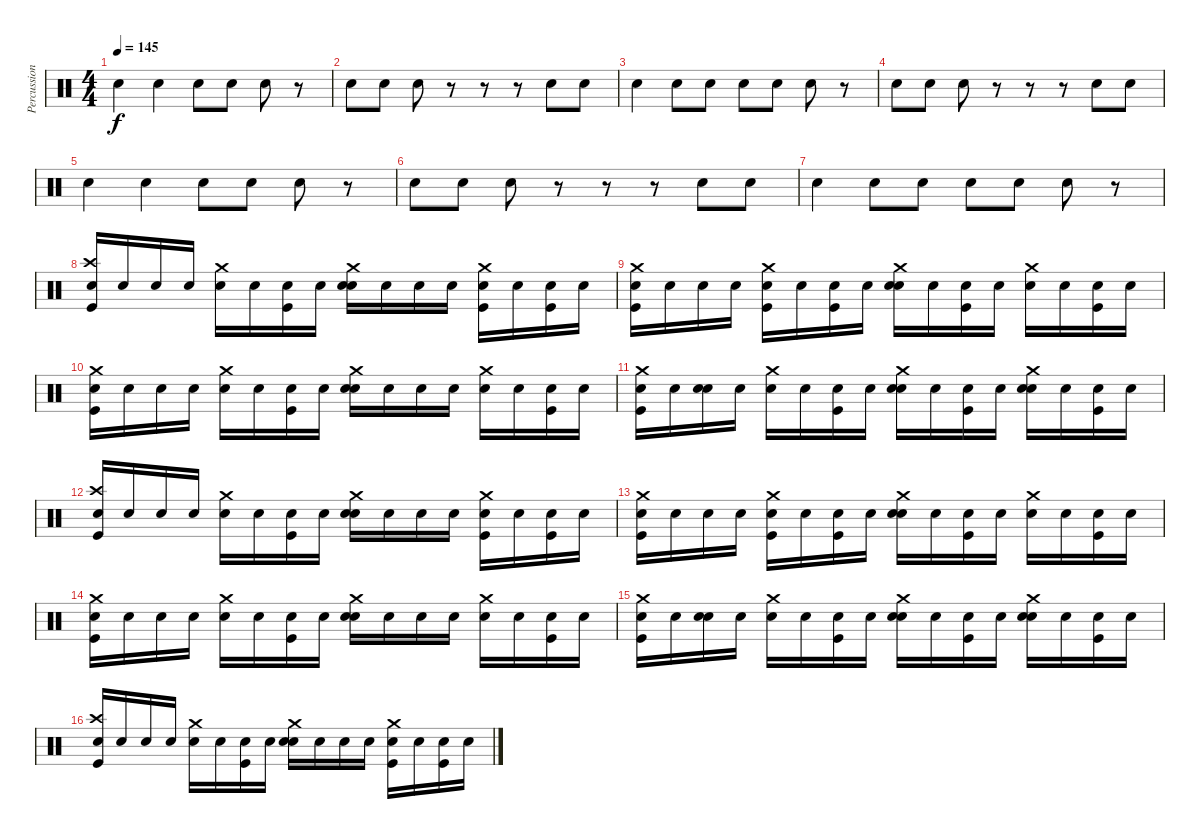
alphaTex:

\track ("Percussion" "Percussion") {instrument percussion}
\staff {score}
\articulation defaults
\ts (4 4)
\tempo 145
\clef neutral
\ks c "Snare (hit) 2".4{dy f} "Snare (hit) 2".4 "Snare (hit) 2".8 "Snare (hit) 2".8 "Snare (hit) 2".8
r.8 |
"Snare (hit) 2".8 "Snare (hit) 2".8 "Snare (hit) 2".8 r.8 r.8 r.8 "Snare (hit) 2".8 "Snare (hit) 2".8 |
"Snare (hit) 2".4 "Snare (hit) 2".8 "Snare (hit) 2".8 "Snare (hit) 2".8 "Snare (hit) 2".8 "Snare (hit) 2".8 r.8 |
"Snare (hit) 2".8 "Snare (hit) 2".8 "Snare (hit) 2".8 r.8 r.8 r.8 "Snare (hit) 2".8 "Snare (hit) 2".8 |
"Snare (hit) 2".4 "Snare (hit) 2".4 "Snare (hit) 2".8 "Snare (hit) 2".8 "Snare (hit) 2".8 r.8 |
"Snare (hit) 2".8 "Snare (hit) 2".8 "Snare (hit) 2".8 r.8 r.8 r.8 "Snare (hit) 2".8 "Snare (hit) 2".8 |
"Snare (hit) 2".4 "Snare (hit) 2".8 "Snare (hit) 2".8 "Snare (hit) 2".8 "Snare (hit) 2".8 "Snare (hit) 2".8 r.8 |
("Snare (hit)" "Crash high (hit)" "Kick (hit)").16 "Snare (hit)".16 "Snare (hit)".16 "Snare (hit)".16 ("Snare (hit)" "Crash medium (hit)").16 "Snare (hit)".16 ("Snare (hit)" "Kick (hit)").16 "Snare (hit)".16 ("Snare (hit)" "Crash medium (hit)" "Snare (hit) 2").16 "Snare (hit)".16 "Snare (hit)".16 "Snare (hit)".16 ("Snare (hit)" "Crash medium (hit)" "Kick (hit)").16 "Snare (hit)".16 ("Snare (hit)" "Kick (hit)").16 "Snare (hit)".16 |
("Snare (hit)" "Crash medium (hit)" "Kick (hit)").16 "Snare (hit)".16 "Snare (hit)".16 "Snare (hit)".16 ("Snare (hit)" "Crash medium (hit)" "Kick (hit)").16 "Snare (hit)".16 ("Snare (hit)" "Kick (hit)").16 "Snare (hit)".16 ("Snare (hit)" "Crash medium (hit)" "Snare (hit) 2").16 "Snare (hit)".16 ("Snare (hit)" "Kick (hit)").16 "Snare (hit)".16 ("Snare (hit)" "Crash medium (hit)").16 "Snare (hit)".16 ("Snare (hit)" "Kick (hit)").16 "Snare (hit)".16 |
("Snare (hit)" "Crash medium (hit)" "Kick (hit)").16 "Snare (hit)".16 "Snare (hit)".16 "Snare (hit)".16 ("Snare (hit)" "Crash medium (hit)").16 "Snare (hit)".16 ("Snare (hit)" "Kick (hit)").16 "Snare (hit)".16 ("Snare (hit)" "Crash medium (hit)" "Snare (hit) 2").16 "Snare (hit)".16 "Snare (hit)".16 "Snare (hit)".16 ("Snare (hit)" "Crash medium (hit)").16 "Snare (hit)".16 ("Snare (hit)" "Kick (hit)").16 "Snare (hit)".16 |
("Snare (hit)" "Crash medium (hit)" "Kick (hit)").16 "Snare (hit)".16 ("Snare (hit)" "Snare (hit) 2").16 "Snare (hit)".16 ("Snare (hit)" "Crash medium (hit)").16 "Snare (hit)".16 ("Snare (hit)" "Kick (hit)").16 "Snare (hit)".16 ("Snare (hit)" "Snare (hit) 2" "Crash medium (hit)").16 "Snare (hit)".16 ("Snare (hit)" "Kick (hit)").16 "Snare (hit)".16 ("Snare (hit)" "Snare (hit) 2" "Crash medium (hit)").16 "Snare (hit)".16 ("Snare (hit)" "Kick (hit)").16 "Snare (hit)".16 |
("Snare (hit)" "Crash high (hit)" "Kick (hit)").16 "Snare (hit)".16 "Snare (hit)".16 "Snare (hit)".16 ("Snare (hit)" "Crash medium (hit)").16 "Snare (hit)".16 ("Snare (hit)" "Kick (hit)").16 "Snare (hit)".16 ("Snare (hit)" "Crash medium (hit)" "Snare (hit) 2").16 "Snare (hit)".16 "Snare (hit)".16 "Snare (hit)".16 ("Snare (hit)" "Crash medium (hit)" "Kick (hit)").16 "Snare (hit)".16 ("Snare (hit)" "Kick (hit)").16 "Snare (hit)".16 |
("Snare (hit)" "Crash medium (hit)" "Kick (hit)").16 "Snare (hit)".16 "Snare (hit)".16 "Snare (hit)".16 ("Snare (hit)" "Crash medium (hit)" "Kick (hit)").16 "Snare (hit)".16 ("Snare (hit)" "Kick (hit)").16 "Snare (hit)".16 ("Snare (hit)" "Crash medium (hit)" "Snare (hit) 2").16 "Snare (hit)".16 ("Snare (hit)" "Kick (hit)").16 "Snare (hit)".16 ("Snare (hit)" "Crash medium (hit)").16 "Snare (hit)".16 ("Snare (hit)" "Kick (hit)").16 "Snare (hit)".16 |
("Snare (hit)" "Crash medium (hit)" "Kick (hit)").16 "Snare (hit)".16 "Snare (hit)".16 "Snare (hit)".16 ("Snare (hit)" "Crash medium (hit)").16 "Snare (hit)".16 ("Snare (hit)" "Kick (hit)").16 "Snare (hit)".16 ("Snare (hit)" "Crash medium (hit)" "Snare (hit) 2").16 "Snare (hit)".16 "Snare (hit)".16 "Snare (hit)".16 ("Snare (hit)" "Crash medium (hit)").16 "Snare (hit)".16 ("Snare (hit)" "Kick (hit)").16 "Snare (hit)".16 |
("Snare (hit)" "Crash medium (hit)" "Kick (hit)").16 "Snare (hit)".16 ("Snare (hit)" "Snare (hit) 2").16 "Snare (hit)".16 ("Snare (hit)" "Crash medium (hit)").16 "Snare (hit)".16 ("Snare (hit)" "Kick (hit)").16 "Snare (hit)".16 ("Snare (hit)" "Snare (hit) 2" "Crash medium (hit)").16 "Snare (hit)".16 ("Snare (hit)" "Kick (hit)").16 "Snare (hit)".16 ("Snare (hit)" "Snare (hit) 2" "Crash medium (hit)").16 "Snare (hit)".16 ("Snare (hit)" "Kick (hit)").16 "Snare (hit)".16 |
("Snare (hit)" "Crash high (hit)" "Kick (hit)").16 "Snare (hit)".16 "Snare (hit)".16 "Snare (hit)".16 ("Snare (hit)" "Crash medium (hit)").16 "Snare (hit)".16 ("Snare (hit)" "Kick (hit)").16 "Snare (hit)".16 ("Snare (hit)" "Crash medium (hit)" "Snare (hit) 2").16 "Snare (hit)".16 "Snare (hit)".16 "Snare (hit)".16 ("Snare (hit)" "Crash medium (hit)" "Kick (hit)").16 "Snare (hit)".16 ("Snare (hit)" "Kick (hit)").16 "Snare (hit)".16
